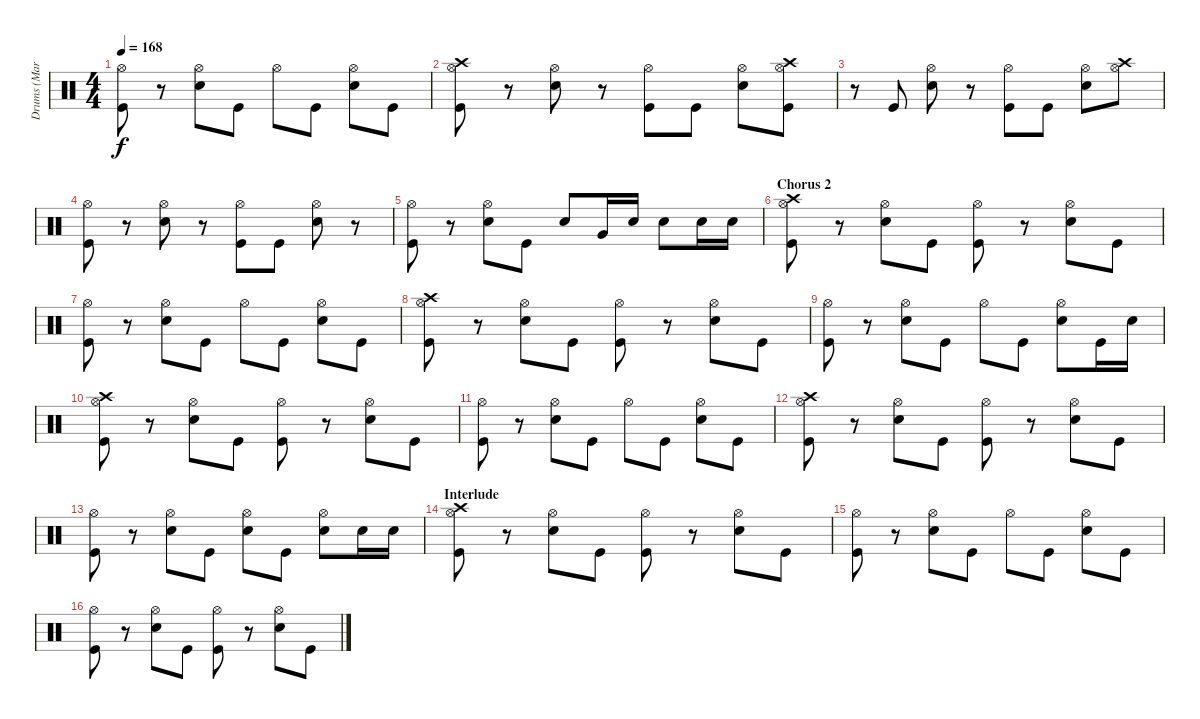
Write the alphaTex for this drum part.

\track ("Drums (Mark Michals)" "Drums (Mar") {instrument percussion}
\staff {score}
\articulation defaults
\ts (4 4)
\tempo 168
\clef neutral
\ks c
("Hi-Hat (open)" "Kick (hit)").8{dy f} r.8 ("Hi-Hat (open)" "Snare (hit) 2").8 "Kick (hit)".8 "Hi-Hat (open)".8 "Kick (hit)".8 ("Hi-Hat (open)" "Snare (hit) 2").8 "Kick (hit)".8 |
("Hi-Hat (open)" "Crash high (hit)" "Kick (hit)").8 r.8 ("Hi-Hat (open)" "Snare (hit) 2").8 r.8 ("Hi-Hat (open)" "Kick (hit)").8 "Kick (hit)".8 ("Hi-Hat (open)" "Snare (hit) 2").8 ("Hi-Hat (open)" "Crash high (hit)" "Kick (hit)").8 |
r.8 "Kick (hit)".8 ("Hi-Hat (open)" "Snare (hit) 2").8 r.8 ("Hi-Hat (open)" "Kick (hit)").8 "Kick (hit)".8 ("Hi-Hat (open)" "Snare (hit) 2").8 ("Hi-Hat (open)" "Crash high (hit)").8 |
("Hi-Hat (open)" "Kick (hit)").8 r.8 ("Hi-Hat (open)" "Snare (hit) 2").8 r.8 ("Hi-Hat (open)" "Kick (hit)").8 "Kick (hit)".8 ("Hi-Hat (open)" "Snare (hit) 2").8 r.8 |
("Hi-Hat (open)" "Kick (hit)").8 r.8 ("Hi-Hat (open)" "Snare (hit) 2").8 "Kick (hit)".8 "Snare (hit) 2".8 "Very Low Tom (hit)".16 "Snare (hit) 2".16 "Snare (hit) 2".8 "Snare (hit) 2".16 "Snare (hit) 2".16 |
\section ("" "Chorus 2")
("Hi-Hat (open)" "Crash high (hit)" "Kick (hit)").8 r.8 ("Hi-Hat (open)" "Snare (hit) 2").8 "Kick (hit)".8 ("Hi-Hat (open)" "Kick (hit)").8 r.8 ("Hi-Hat (open)" "Snare (hit) 2").8 "Kick (hit)".8 |
("Hi-Hat (open)" "Kick (hit)").8 r.8 ("Hi-Hat (open)" "Snare (hit) 2").8 "Kick (hit)".8 "Hi-Hat (open)".8 "Kick (hit)".8 ("Hi-Hat (open)" "Snare (hit) 2").8 "Kick (hit)".8 |
("Hi-Hat (open)" "Crash high (hit)" "Kick (hit)").8 r.8 ("Hi-Hat (open)" "Snare (hit) 2").8 "Kick (hit)".8 ("Hi-Hat (open)" "Kick (hit)").8 r.8 ("Hi-Hat (open)" "Snare (hit) 2").8 "Kick (hit)".8 |
("Hi-Hat (open)" "Kick (hit)").8 r.8 ("Hi-Hat (open)" "Snare (hit) 2").8 "Kick (hit)".8 "Hi-Hat (open)".8 "Kick (hit)".8 ("Hi-Hat (open)" "Snare (hit) 2").8 "Kick (hit)".16 "Snare (hit) 2".16 |
("Hi-Hat (open)" "Crash high (hit)" "Kick (hit)").8 r.8 ("Hi-Hat (open)" "Snare (hit) 2").8 "Kick (hit)".8 ("Hi-Hat (open)" "Kick (hit)").8 r.8 ("Hi-Hat (open)" "Snare (hit) 2").8 "Kick (hit)".8 |
("Hi-Hat (open)" "Kick (hit)").8 r.8 ("Hi-Hat (open)" "Snare (hit) 2").8 "Kick (hit)".8 "Hi-Hat (open)".8 "Kick (hit)".8 ("Hi-Hat (open)" "Snare (hit) 2").8 "Kick (hit)".8 |
("Hi-Hat (open)" "Crash high (hit)" "Kick (hit)").8 r.8 ("Hi-Hat (open)" "Snare (hit) 2").8 "Kick (hit)".8 ("Hi-Hat (open)" "Kick (hit)").8 r.8 ("Hi-Hat (open)" "Snare (hit) 2").8 "Kick (hit)".8 |
("Hi-Hat (open)" "Kick (hit)").8 r.8 ("Hi-Hat (open)" "Snare (hit) 2").8 "Kick (hit)".8 ("Hi-Hat (open)" "Snare (hit) 2").8 "Kick (hit)".8 ("Hi-Hat (open)" "Snare (hit) 2").8 "Snare (hit) 2".16 "Snare (hit) 2".16 |
\section ("" "Interlude")
("Hi-Hat (open)" "Crash high (hit)" "Kick (hit)").8 r.8 ("Hi-Hat (open)" "Snare (hit) 2").8 "Kick (hit)".8 ("Hi-Hat (open)" "Kick (hit)").8 r.8 ("Hi-Hat (open)" "Snare (hit) 2").8 "Kick (hit)".8 |
("Hi-Hat (open)" "Kick (hit)").8 r.8 ("Hi-Hat (open)" "Snare (hit) 2").8 "Kick (hit)".8 "Hi-Hat (open)".8 "Kick (hit)".8 ("Hi-Hat (open)" "Snare (hit) 2").8 "Kick (hit)".8 |
("Hi-Hat (open)" "Kick (hit)").8 r.8 ("Hi-Hat (open)" "Snare (hit) 2").8 "Kick (hit)".8 ("Hi-Hat (open)" "Kick (hit)").8 r.8 ("Hi-Hat (open)" "Snare (hit) 2").8 "Kick (hit)".8
